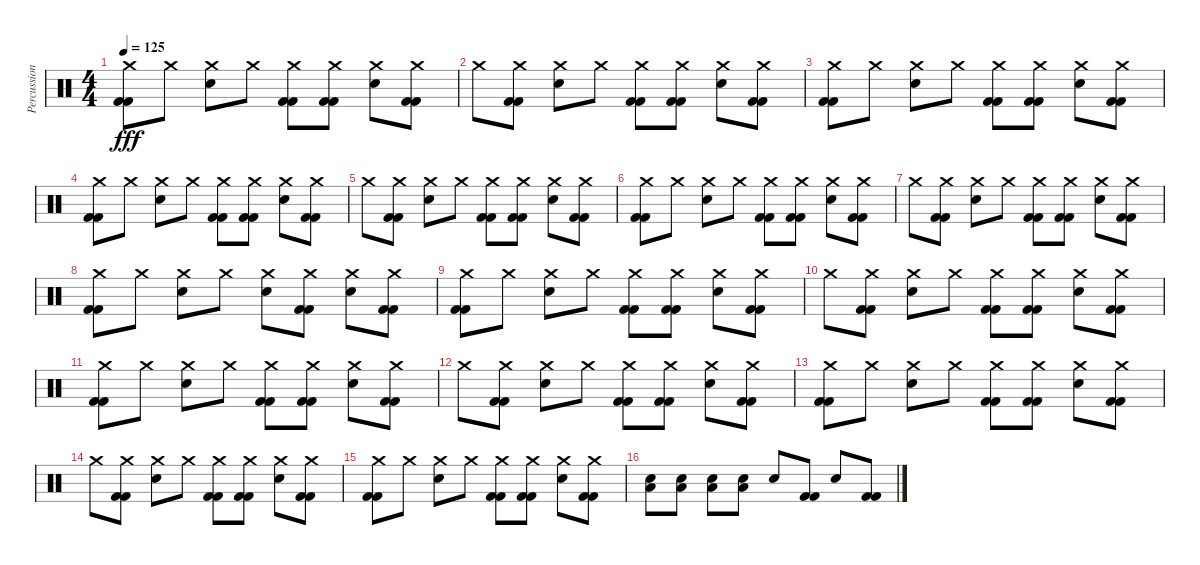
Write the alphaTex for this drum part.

\track ("Percussion" "Percussion") {instrument percussion}
\staff {score}
\articulation defaults
\ts (4 4)
\tempo 125
\clef neutral
\ks c
("Crash medium (hit)" "Kick (hit) 2" "Kick (hit) 2").8{dy fff} "Crash medium (hit)".8 ("Crash medium (hit)" "Snare (hit) 2").8 "Crash medium (hit)".8 ("Crash medium (hit)" "Kick (hit) 2" "Kick (hit) 2").8 ("Crash medium (hit)" "Kick (hit) 2" "Kick (hit) 2").8 ("Crash medium (hit)" "Snare (hit) 2").8 ("Crash medium (hit)" "Kick (hit) 2" "Kick (hit) 2").8 |
"Crash medium (hit)".8 ("Crash medium (hit)" "Kick (hit) 2" "Kick (hit) 2").8 ("Crash medium (hit)" "Snare (hit) 2").8 "Crash medium (hit)".8 ("Crash medium (hit)" "Kick (hit) 2" "Kick (hit) 2").8 ("Crash medium (hit)" "Kick (hit) 2" "Kick (hit) 2").8 ("Crash medium (hit)" "Snare (hit) 2").8 ("Crash medium (hit)" "Kick (hit) 2" "Kick (hit) 2").8 |
("Crash medium (hit)" "Kick (hit) 2" "Kick (hit) 2").8 "Crash medium (hit)".8 ("Crash medium (hit)" "Snare (hit) 2").8 "Crash medium (hit)".8 ("Crash medium (hit)" "Kick (hit) 2" "Kick (hit) 2").8 ("Crash medium (hit)" "Kick (hit) 2" "Kick (hit) 2").8 ("Crash medium (hit)" "Snare (hit) 2").8 ("Crash medium (hit)" "Kick (hit) 2" "Kick (hit) 2").8 |
("Crash medium (hit)" "Kick (hit) 2" "Kick (hit) 2").8 "Crash medium (hit)".8 ("Crash medium (hit)" "Snare (hit) 2").8 "Crash medium (hit)".8 ("Crash medium (hit)" "Kick (hit) 2" "Kick (hit) 2").8 ("Crash medium (hit)" "Kick (hit) 2" "Kick (hit) 2").8 ("Crash medium (hit)" "Snare (hit) 2").8 ("Crash medium (hit)" "Kick (hit) 2" "Kick (hit) 2").8 |
"Crash medium (hit)".8 ("Crash medium (hit)" "Kick (hit) 2" "Kick (hit) 2").8 ("Crash medium (hit)" "Snare (hit) 2").8 "Crash medium (hit)".8 ("Crash medium (hit)" "Kick (hit) 2" "Kick (hit) 2").8 ("Crash medium (hit)" "Kick (hit) 2" "Kick (hit) 2").8 ("Crash medium (hit)" "Snare (hit) 2").8 ("Crash medium (hit)" "Kick (hit) 2" "Kick (hit) 2").8 |
("Crash medium (hit)" "Kick (hit) 2" "Kick (hit) 2").8 "Crash medium (hit)".8 ("Crash medium (hit)" "Snare (hit) 2").8 "Crash medium (hit)".8 ("Crash medium (hit)" "Kick (hit) 2" "Kick (hit) 2").8 ("Crash medium (hit)" "Kick (hit) 2" "Kick (hit) 2").8 ("Crash medium (hit)" "Snare (hit) 2").8 ("Crash medium (hit)" "Kick (hit) 2" "Kick (hit) 2").8 |
"Crash medium (hit)".8 ("Crash medium (hit)" "Kick (hit) 2" "Kick (hit) 2").8 ("Crash medium (hit)" "Snare (hit) 2").8 "Crash medium (hit)".8 ("Crash medium (hit)" "Kick (hit) 2" "Kick (hit) 2").8 ("Crash medium (hit)" "Kick (hit) 2" "Kick (hit) 2").8 ("Crash medium (hit)" "Snare (hit) 2").8 ("Crash medium (hit)" "Kick (hit) 2" "Kick (hit) 2").8 |
("Crash medium (hit)" "Kick (hit) 2" "Kick (hit) 2").8 "Crash medium (hit)".8 ("Crash medium (hit)" "Snare (hit) 2").8 "Crash medium (hit)".8 ("Crash medium (hit)" "Snare (hit) 2").8 ("Crash medium (hit)" "Kick (hit) 2" "Kick (hit) 2").8 ("Crash medium (hit)" "Snare (hit) 2").8 ("Crash medium (hit)" "Kick (hit) 2" "Kick (hit) 2").8 |
("Crash medium (hit)" "Kick (hit) 2" "Kick (hit) 2").8 "Crash medium (hit)".8 ("Crash medium (hit)" "Snare (hit) 2").8 "Crash medium (hit)".8 ("Crash medium (hit)" "Kick (hit) 2" "Kick (hit) 2").8 ("Crash medium (hit)" "Kick (hit) 2" "Kick (hit) 2").8 ("Crash medium (hit)" "Snare (hit) 2").8 ("Crash medium (hit)" "Kick (hit) 2" "Kick (hit) 2").8 |
"Crash medium (hit)".8 ("Crash medium (hit)" "Kick (hit) 2" "Kick (hit) 2").8 ("Crash medium (hit)" "Snare (hit) 2").8 "Crash medium (hit)".8 ("Crash medium (hit)" "Kick (hit) 2" "Kick (hit) 2").8 ("Crash medium (hit)" "Kick (hit) 2" "Kick (hit) 2").8 ("Crash medium (hit)" "Snare (hit) 2").8 ("Crash medium (hit)" "Kick (hit) 2" "Kick (hit) 2").8 |
("Crash medium (hit)" "Kick (hit) 2" "Kick (hit) 2").8 "Crash medium (hit)".8 ("Crash medium (hit)" "Snare (hit) 2").8 "Crash medium (hit)".8 ("Crash medium (hit)" "Kick (hit) 2" "Kick (hit) 2").8 ("Crash medium (hit)" "Kick (hit) 2" "Kick (hit) 2").8 ("Crash medium (hit)" "Snare (hit) 2").8 ("Crash medium (hit)" "Kick (hit) 2" "Kick (hit) 2").8 |
"Crash medium (hit)".8 ("Crash medium (hit)" "Kick (hit) 2" "Kick (hit) 2").8 ("Crash medium (hit)" "Snare (hit) 2").8 "Crash medium (hit)".8 ("Crash medium (hit)" "Kick (hit) 2" "Kick (hit) 2").8 ("Crash medium (hit)" "Kick (hit) 2" "Kick (hit) 2").8 ("Crash medium (hit)" "Snare (hit) 2").8 ("Crash medium (hit)" "Kick (hit) 2" "Kick (hit) 2").8 |
("Crash medium (hit)" "Kick (hit) 2" "Kick (hit) 2").8 "Crash medium (hit)".8 ("Crash medium (hit)" "Snare (hit) 2").8 "Crash medium (hit)".8 ("Crash medium (hit)" "Kick (hit) 2" "Kick (hit) 2").8 ("Crash medium (hit)" "Kick (hit) 2" "Kick (hit) 2").8 ("Crash medium (hit)" "Snare (hit) 2").8 ("Crash medium (hit)" "Kick (hit) 2" "Kick (hit) 2").8 |
"Crash medium (hit)".8 ("Crash medium (hit)" "Kick (hit) 2" "Kick (hit) 2").8 ("Crash medium (hit)" "Snare (hit) 2").8 "Crash medium (hit)".8 ("Crash medium (hit)" "Kick (hit) 2" "Kick (hit) 2").8 ("Crash medium (hit)" "Kick (hit) 2" "Kick (hit) 2").8 ("Crash medium (hit)" "Snare (hit) 2").8 ("Crash medium (hit)" "Kick (hit) 2" "Kick (hit) 2").8 |
("Crash medium (hit)" "Kick (hit) 2" "Kick (hit) 2").8 "Crash medium (hit)".8 ("Crash medium (hit)" "Snare (hit) 2").8 "Crash medium (hit)".8 ("Crash medium (hit)" "Kick (hit) 2" "Kick (hit) 2").8 ("Crash medium (hit)" "Kick (hit) 2" "Kick (hit) 2").8 ("Crash medium (hit)" "Snare (hit) 2").8 ("Crash medium (hit)" "Kick (hit) 2" "Kick (hit) 2").8 |
("Low Floor Tom (hit)" "Snare (hit) 2").8 ("Low Floor Tom (hit)" "Snare (hit) 2").8 ("Low Floor Tom (hit)" "Snare (hit) 2").8 ("Low Floor Tom (hit)" "Snare (hit) 2").8 "Snare (hit) 2".8 ("Kick (hit) 2" "Kick (hit) 2").8 "Snare (hit) 2".8 ("Kick (hit) 2" "Kick (hit) 2").8
